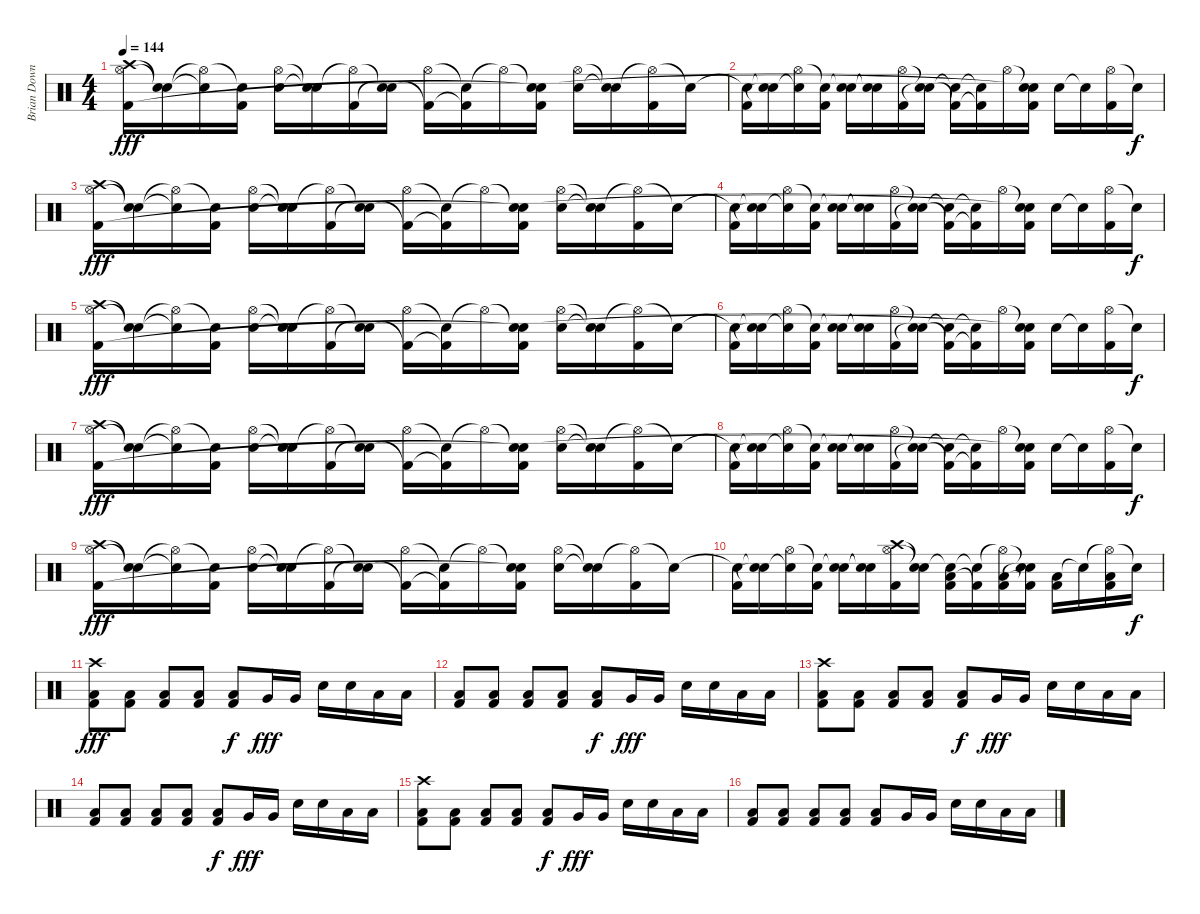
\track ("Brian Downey" "Brian Down") {instrument percussion}
\staff {score}
\articulation defaults
\ts (4 4)
\tempo 144
\clef neutral
\ks c
("Crash high (hit)" "Hi-Hat (open)" "Kick (hit) 2").16{dy fff} ("Snare (hit)"{t} "Snare (hit)"{t}).16 ("Hi-Hat (open)"{t} "Snare (hit)"{t}).16 ("Snare (hit)"{t} "Kick (hit) 2").16 ("Hi-Hat (open)" "Electric Snare (hit)").16 ("Snare (hit)"{t} "Snare (hit)"{t}).16 ("Hi-Hat (open)"{t} "Kick (hit) 2").16 ("Snare (hit)"{t} "Snare (hit)"{t}).16 ("Hi-Hat (open)" "Kick (hit) 2"{t}).16 ("Snare (hit)"{t} "Kick (hit) 2"{t}).16 "Hi-Hat (open)"{t}.16 ("Snare (hit)"{t} "Kick (hit) 2" "Snare (hit)"{t}).16 ("Hi-Hat (open)" "Electric Snare (hit)").16 ("Snare (hit)"{t} "Snare (hit)"{t}).16 ("Hi-Hat (open)"{t} "Kick (hit) 2").16 "Snare (hit)"{t}.16 |
("Snare (hit)"{t} "Kick (hit) 2").16 ("Snare (hit)"{t} "Snare (hit)"{t}).16 ("Hi-Hat (open)" "Snare (hit)"{t}).16 ("Snare (hit)"{t} "Kick (hit) 2").16 ("Snare (hit)"{t} "Electric Snare (hit)").16 ("Snare (hit)"{t} "Snare (hit)"{t}).16 ("Hi-Hat (open)" "Kick (hit) 2").16 ("Snare (hit)"{t} "Snare (hit)"{t}).16 ("Snare (hit)"{t} "Kick (hit) 2"{t}).16 ("Snare (hit)"{t} "Kick (hit) 2"{t}).16 "Hi-Hat (open)".16 ("Snare (hit)"{t} "Kick (hit) 2" "Snare (hit)"{t}).16 "Electric Snare (hit)".16 "Snare (hit)"{t}.16 ("Hi-Hat (open)" "Kick (hit) 2").16 "Snare (hit)"{t}.16{dy f} |
("Crash high (hit)" "Hi-Hat (open)" "Kick (hit) 2").16{dy fff} ("Snare (hit)"{t} "Snare (hit)"{t}).16 ("Hi-Hat (open)"{t} "Snare (hit)"{t}).16 ("Snare (hit)"{t} "Kick (hit) 2").16 ("Hi-Hat (open)" "Electric Snare (hit)").16 ("Snare (hit)"{t} "Snare (hit)"{t}).16 ("Hi-Hat (open)"{t} "Kick (hit) 2").16 ("Snare (hit)"{t} "Snare (hit)"{t}).16 ("Hi-Hat (open)" "Kick (hit) 2"{t}).16 ("Snare (hit)"{t} "Kick (hit) 2"{t}).16 "Hi-Hat (open)"{t}.16 ("Snare (hit)"{t} "Kick (hit) 2" "Snare (hit)"{t}).16 ("Hi-Hat (open)" "Electric Snare (hit)").16 ("Snare (hit)"{t} "Snare (hit)"{t}).16 ("Hi-Hat (open)"{t} "Kick (hit) 2").16 "Snare (hit)"{t}.16 |
("Snare (hit)"{t} "Kick (hit) 2").16 ("Snare (hit)"{t} "Snare (hit)"{t}).16 ("Hi-Hat (open)" "Snare (hit)"{t}).16 ("Snare (hit)"{t} "Kick (hit) 2").16 ("Snare (hit)"{t} "Electric Snare (hit)").16 ("Snare (hit)"{t} "Snare (hit)"{t}).16 ("Hi-Hat (open)" "Kick (hit) 2").16 ("Snare (hit)"{t} "Snare (hit)"{t}).16 ("Snare (hit)"{t} "Kick (hit) 2"{t}).16 ("Snare (hit)"{t} "Kick (hit) 2"{t}).16 "Hi-Hat (open)".16 ("Snare (hit)"{t} "Kick (hit) 2" "Snare (hit)"{t}).16 "Electric Snare (hit)".16 "Snare (hit)"{t}.16 ("Hi-Hat (open)" "Kick (hit) 2").16 "Snare (hit)"{t}.16{dy f} |
("Crash high (hit)" "Hi-Hat (open)" "Kick (hit) 2").16{dy fff} ("Snare (hit)"{t} "Snare (hit)"{t}).16 ("Hi-Hat (open)"{t} "Snare (hit)"{t}).16 ("Snare (hit)"{t} "Kick (hit) 2").16 ("Hi-Hat (open)" "Electric Snare (hit)").16 ("Snare (hit)"{t} "Snare (hit)"{t}).16 ("Hi-Hat (open)"{t} "Kick (hit) 2").16 ("Snare (hit)"{t} "Snare (hit)"{t}).16 ("Hi-Hat (open)" "Kick (hit) 2"{t}).16 ("Snare (hit)"{t} "Kick (hit) 2"{t}).16 "Hi-Hat (open)"{t}.16 ("Snare (hit)"{t} "Kick (hit) 2" "Snare (hit)"{t}).16 ("Hi-Hat (open)" "Electric Snare (hit)").16 ("Snare (hit)"{t} "Snare (hit)"{t}).16 ("Hi-Hat (open)"{t} "Kick (hit) 2").16 "Snare (hit)"{t}.16 |
("Snare (hit)"{t} "Kick (hit) 2").16 ("Snare (hit)"{t} "Snare (hit)"{t}).16 ("Hi-Hat (open)" "Snare (hit)"{t}).16 ("Snare (hit)"{t} "Kick (hit) 2").16 ("Snare (hit)"{t} "Electric Snare (hit)").16 ("Snare (hit)"{t} "Snare (hit)"{t}).16 ("Hi-Hat (open)" "Kick (hit) 2").16 ("Snare (hit)"{t} "Snare (hit)"{t}).16 ("Snare (hit)"{t} "Kick (hit) 2"{t}).16 ("Snare (hit)"{t} "Kick (hit) 2"{t}).16 "Hi-Hat (open)".16 ("Snare (hit)"{t} "Kick (hit) 2" "Snare (hit)"{t}).16 "Electric Snare (hit)".16 "Snare (hit)"{t}.16 ("Hi-Hat (open)" "Kick (hit) 2").16 "Snare (hit)"{t}.16{dy f} |
("Crash high (hit)" "Hi-Hat (open)" "Kick (hit) 2").16{dy fff} ("Snare (hit)"{t} "Snare (hit)"{t}).16 ("Hi-Hat (open)"{t} "Snare (hit)"{t}).16 ("Snare (hit)"{t} "Kick (hit) 2").16 ("Hi-Hat (open)" "Electric Snare (hit)").16 ("Snare (hit)"{t} "Snare (hit)"{t}).16 ("Hi-Hat (open)"{t} "Kick (hit) 2").16 ("Snare (hit)"{t} "Snare (hit)"{t}).16 ("Hi-Hat (open)" "Kick (hit) 2"{t}).16 ("Snare (hit)"{t} "Kick (hit) 2"{t}).16 "Hi-Hat (open)"{t}.16 ("Snare (hit)"{t} "Kick (hit) 2" "Snare (hit)"{t}).16 ("Hi-Hat (open)" "Electric Snare (hit)").16 ("Snare (hit)"{t} "Snare (hit)"{t}).16 ("Hi-Hat (open)"{t} "Kick (hit) 2").16 "Snare (hit)"{t}.16 |
("Snare (hit)"{t} "Kick (hit) 2").16 ("Snare (hit)"{t} "Snare (hit)"{t}).16 ("Hi-Hat (open)" "Snare (hit)"{t}).16 ("Snare (hit)"{t} "Kick (hit) 2").16 ("Snare (hit)"{t} "Electric Snare (hit)").16 ("Snare (hit)"{t} "Snare (hit)"{t}).16 ("Hi-Hat (open)" "Kick (hit) 2").16 ("Snare (hit)"{t} "Snare (hit)"{t}).16 ("Snare (hit)"{t} "Kick (hit) 2"{t}).16 ("Snare (hit)"{t} "Kick (hit) 2"{t}).16 "Hi-Hat (open)".16 ("Snare (hit)"{t} "Kick (hit) 2" "Snare (hit)"{t}).16 "Electric Snare (hit)".16 "Snare (hit)"{t}.16 ("Hi-Hat (open)" "Kick (hit) 2").16 "Snare (hit)"{t}.16{dy f} |
("Crash high (hit)" "Hi-Hat (open)" "Kick (hit) 2").16{dy fff} ("Snare (hit)"{t} "Snare (hit)"{t}).16 ("Hi-Hat (open)"{t} "Snare (hit)"{t}).16 ("Snare (hit)"{t} "Kick (hit) 2").16 ("Hi-Hat (open)" "Electric Snare (hit)").16 ("Snare (hit)"{t} "Snare (hit)"{t}).16 ("Hi-Hat (open)"{t} "Kick (hit) 2").16 ("Snare (hit)"{t} "Snare (hit)"{t}).16 ("Hi-Hat (open)" "Kick (hit) 2"{t}).16 ("Snare (hit)"{t} "Kick (hit) 2"{t}).16 "Hi-Hat (open)"{t}.16 ("Snare (hit)"{t} "Kick (hit) 2" "Snare (hit)"{t}).16 ("Hi-Hat (open)" "Electric Snare (hit)").16 ("Snare (hit)"{t} "Snare (hit)"{t}).16 ("Hi-Hat (open)"{t} "Kick (hit) 2").16 "Snare (hit)"{t}.16 |
("Snare (hit)"{t} "Kick (hit) 2").16 ("Snare (hit)"{t} "Snare (hit)"{t}).16 ("Hi-Hat (open)" "Snare (hit)"{t}).16 ("Snare (hit)"{t} "Kick (hit) 2").16 ("Snare (hit)"{t} "Electric Snare (hit)").16 ("Snare (hit)"{t} "Snare (hit)"{t}).16 ("Crash high (hit)" "Hi-Hat (open)" "Kick (hit) 2").16 ("Snare (hit)"{t} "Snare (hit)"{t}).16 ("Snare (hit)"{t} "Low Floor Tom (hit)" "Kick (hit) 2").16 ("Snare (hit)"{t} "Kick (hit) 2"{t}).16 ("Hi-Hat (open)"{t} "Low Floor Tom (hit)" "Kick (hit) 2").16 ("Snare (hit)"{t} "Kick (hit) 2"{t} "Snare (hit)"{t}).16 ("Low Floor Tom (hit)" "Kick (hit) 2").16 "Snare (hit)"{t}.16 ("Hi-Hat (open)"{t} "Low Floor Tom (hit)" "Kick (hit) 2").16 "Snare (hit)"{t}.16{dy f} |
("Crash high (hit)" "Kick (hit) 2" "Low Floor Tom (hit)").8{dy fff} ("Kick (hit) 2" "Low Floor Tom (hit)").8 ("Kick (hit) 2" "Low Floor Tom (hit)").8 ("Kick (hit) 2" "Low Floor Tom (hit)").8 ("Kick (hit) 2" "Low Floor Tom (hit)").8{dy f} "Very Low Tom (hit)".16{dy fff} "Very Low Tom (hit)".16 "Electric Snare (hit)".16 "Electric Snare (hit)".16 "Low Floor Tom (hit)".16 "Low Floor Tom (hit)".16 |
("Kick (hit) 2" "Low Floor Tom (hit)").8 ("Kick (hit) 2" "Low Floor Tom (hit)").8 ("Kick (hit) 2" "Low Floor Tom (hit)").8 ("Kick (hit) 2" "Low Floor Tom (hit)").8 ("Kick (hit) 2" "Low Floor Tom (hit)").8{dy f} "Very Low Tom (hit)".16{dy fff} "Very Low Tom (hit)".16 "Electric Snare (hit)".16 "Electric Snare (hit)".16 "Low Floor Tom (hit)".16 "Low Floor Tom (hit)".16 |
("Crash high (hit)" "Kick (hit) 2" "Low Floor Tom (hit)").8 ("Kick (hit) 2" "Low Floor Tom (hit)").8 ("Kick (hit) 2" "Low Floor Tom (hit)").8 ("Kick (hit) 2" "Low Floor Tom (hit)").8 ("Kick (hit) 2" "Low Floor Tom (hit)").8{dy f} "Very Low Tom (hit)".16{dy fff} "Very Low Tom (hit)".16 "Electric Snare (hit)".16 "Electric Snare (hit)".16 "Low Floor Tom (hit)".16 "Low Floor Tom (hit)".16 |
("Kick (hit) 2" "Low Floor Tom (hit)").8 ("Kick (hit) 2" "Low Floor Tom (hit)").8 ("Kick (hit) 2" "Low Floor Tom (hit)").8 ("Kick (hit) 2" "Low Floor Tom (hit)").8 ("Kick (hit) 2" "Low Floor Tom (hit)").8{dy f} "Very Low Tom (hit)".16{dy fff} "Very Low Tom (hit)".16 "Electric Snare (hit)".16 "Electric Snare (hit)".16 "Low Floor Tom (hit)".16 "Low Floor Tom (hit)".16 |
("Crash high (hit)" "Kick (hit) 2" "Low Floor Tom (hit)").8 ("Kick (hit) 2" "Low Floor Tom (hit)").8 ("Kick (hit) 2" "Low Floor Tom (hit)").8 ("Kick (hit) 2" "Low Floor Tom (hit)").8 ("Kick (hit) 2" "Low Floor Tom (hit)").8{dy f} "Very Low Tom (hit)".16{dy fff} "Very Low Tom (hit)".16 "Electric Snare (hit)".16 "Electric Snare (hit)".16 "Low Floor Tom (hit)".16 "Low Floor Tom (hit)".16 |
("Kick (hit) 2" "Low Floor Tom (hit)").8 ("Kick (hit) 2" "Low Floor Tom (hit)").8 ("Kick (hit) 2" "Low Floor Tom (hit)").8 ("Kick (hit) 2" "Low Floor Tom (hit)").8 ("Kick (hit) 2" "Low Floor Tom (hit)").8 "Very Low Tom (hit)".16 "Very Low Tom (hit)".16 "Electric Snare (hit)".16 "Electric Snare (hit)".16 "Low Floor Tom (hit)".16 "Low Floor Tom (hit)".16
